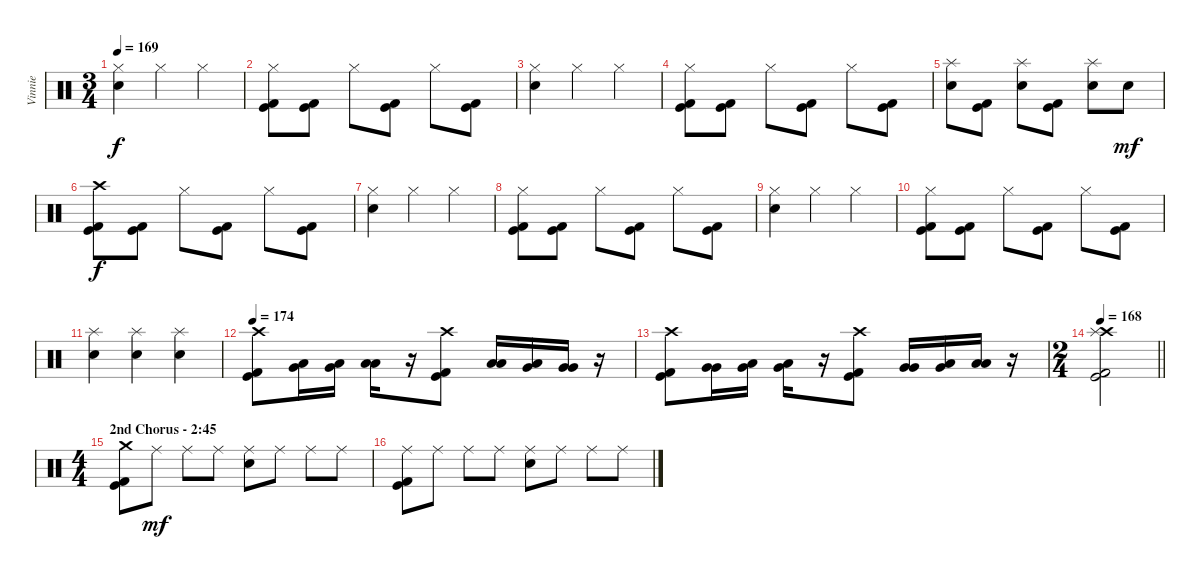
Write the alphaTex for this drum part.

\track ("Vinnie" "Vinnie") {instrument percussion}
\staff {score}
\articulation defaults
\ts (3 4)
\tempo 169
\clef neutral
\ks c
("Hi-Hat (closed)" "Electric Snare (hit)").4{dy f} "Hi-Hat (closed)".4 "Hi-Hat (closed)".4 |
("Hi-Hat (closed)" "Kick (hit)" "Kick (hit) 2").8 ("Kick (hit)" "Kick (hit) 2").8 "Hi-Hat (closed)".8 ("Kick (hit)" "Kick (hit) 2").8 "Hi-Hat (closed)".8 ("Kick (hit)" "Kick (hit) 2").8 |
("Hi-Hat (closed)" "Electric Snare (hit)").4 "Hi-Hat (closed)".4 "Hi-Hat (closed)".4 |
("Hi-Hat (closed)" "Kick (hit)" "Kick (hit) 2").8 ("Kick (hit)" "Kick (hit) 2").8 "Hi-Hat (closed)".8 ("Kick (hit)" "Kick (hit) 2").8 "Hi-Hat (closed)".8 ("Kick (hit)" "Kick (hit) 2").8 |
("Splash (hit)" "Electric Snare (hit)").8 ("Kick (hit)" "Kick (hit) 2").8 ("Splash (hit)" "Electric Snare (hit)").8 ("Kick (hit)" "Kick (hit) 2").8 ("Splash (hit)" "Electric Snare (hit)").8 "Electric Snare (hit)".8{dy mf} |
("Crash high (hit)" "Kick (hit)" "Kick (hit) 2").8{dy f} ("Kick (hit)" "Kick (hit) 2").8 "Hi-Hat (closed)".8 ("Kick (hit)" "Kick (hit) 2").8 "Hi-Hat (closed)".8 ("Kick (hit)" "Kick (hit) 2").8 |
("Hi-Hat (closed)" "Electric Snare (hit)").4 "Hi-Hat (closed)".4 "Hi-Hat (closed)".4 |
("Hi-Hat (closed)" "Kick (hit)" "Kick (hit) 2").8 ("Kick (hit)" "Kick (hit) 2").8 "Hi-Hat (closed)".8 ("Kick (hit)" "Kick (hit) 2").8 "Hi-Hat (closed)".8 ("Kick (hit)" "Kick (hit) 2").8 |
("Hi-Hat (closed)" "Electric Snare (hit)").4 "Hi-Hat (closed)".4 "Hi-Hat (closed)".4 |
("Hi-Hat (closed)" "Kick (hit)" "Kick (hit) 2").8 ("Kick (hit)" "Kick (hit) 2").8 "Hi-Hat (closed)".8 ("Kick (hit)" "Kick (hit) 2").8 "Hi-Hat (closed)".8 ("Kick (hit)" "Kick (hit) 2").8 |
("Splash (hit)" "Electric Snare (hit)").4 ("Splash (hit)" "Electric Snare (hit)").4 ("Splash (hit)" "Electric Snare (hit)").4 |
\tempo 174
("Crash high (hit)" "Kick (hit)" "Kick (hit) 2").8 ("Very Low Tom (hit)" "Low Tom (hit)").16 ("Very Low Tom (hit)" "Low Tom (hit)").16 ("Low Tom (hit)" "Low Tom (hit)").16 r.16 ("Crash high (hit)" "Kick (hit)" "Kick (hit) 2").8 ("Low Tom (hit)" "Low Tom (hit)").16 ("Low Tom (hit)" "Very Low Tom (hit)").16 ("Very Low Tom (hit)" "Very Low Tom (hit)").16 r.16 |
("Crash high (hit)" "Kick (hit)" "Kick (hit) 2").8 ("Very Low Tom (hit)" "Very Low Tom (hit)").16 ("Very Low Tom (hit)" "Low Floor Tom (hit)").16 ("Very Low Tom (hit)" "Low Floor Tom (hit)").16 r.16 ("Crash high (hit)" "Kick (hit)" "Kick (hit) 2").8 ("Very Low Tom (hit)" "Very Low Tom (hit)").16 ("Very Low Tom (hit)" "Low Floor Tom (hit)").16 ("Low Floor Tom (hit)" "Low Floor Tom (hit)").16 r.16 |
\ts (2 4)
\tempo 168
\barLineRight lightlight
("Crash high (hit)" "Splash (hit)" "Kick (hit)" "Kick (hit) 2").2 |
\ts (4 4)
\section ("" "2nd Chorus - 2:45")
("Crash medium (hit)" "Kick (hit)" "Kick (hit) 2").8 "Ride (middle)".8{dy mf} "Ride (middle)".8 "Ride (middle)".8 ("Ride (middle)" "Electric Snare (hit)").8 "Ride (middle)".8 "Ride (middle)".8 "Ride (middle)".8 |
("Ride (middle)" "Kick (hit)" "Kick (hit) 2").8 "Ride (middle)".8 "Ride (middle)".8 "Ride (middle)".8 ("Ride (middle)" "Electric Snare (hit)").8 "Ride (middle)".8 "Ride (middle)".8 "Ride (middle)".8
